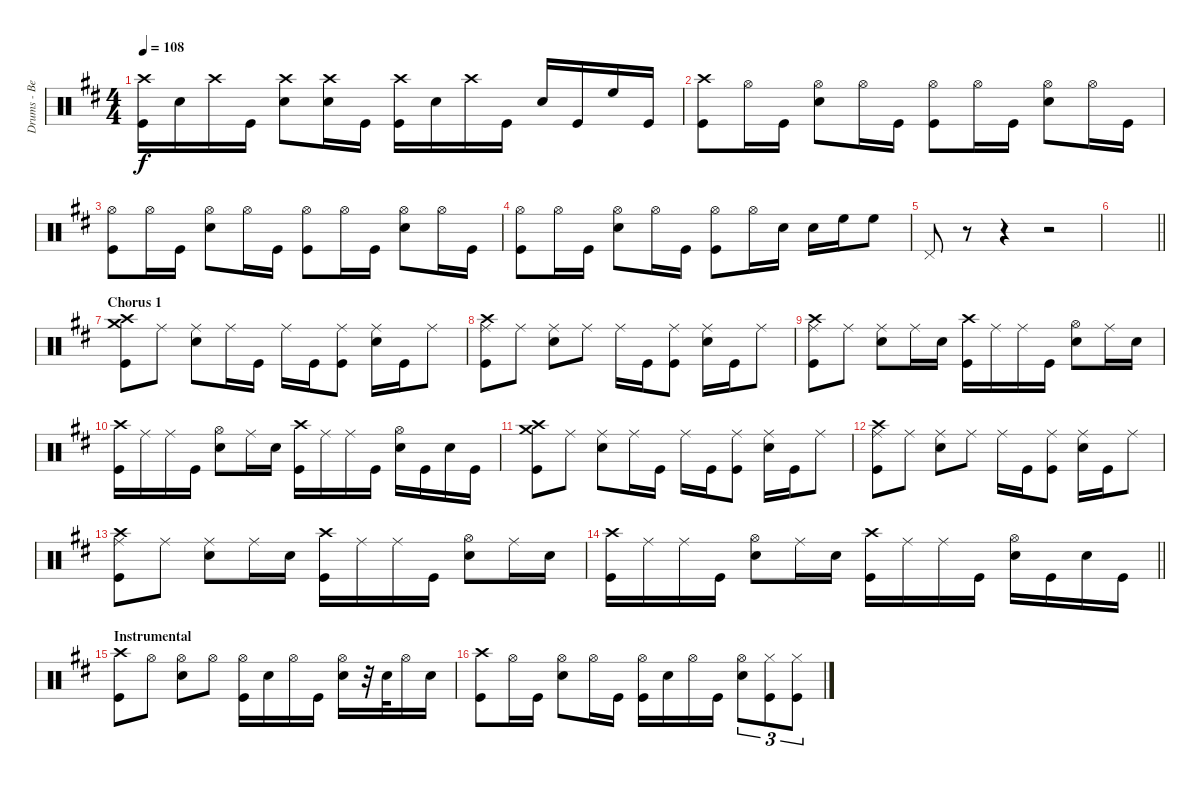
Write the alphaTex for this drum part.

\track ("Drums - Ben Johnston" "Drums - Be") {instrument percussion}
\staff {score}
\articulation defaults
\ts (4 4)
\tempo 108
\clef neutral
\ks d
("Crash high (hit)" "Kick (hit)").16{dy f} "Snare (hit) 2".16 "Crash high (hit)".16 "Kick (hit)".16 ("Crash high (hit)" "Snare (hit) 2").8 ("Crash high (hit)" "Snare (hit) 2").16 "Kick (hit)".16 ("Crash high (hit)" "Kick (hit)").16 "Snare (hit) 2".16 "Crash high (hit)".16 "Kick (hit)".16 "Snare (hit) 2".16 "Kick (hit)".16 "High Floor Tom (hit)".16 "Kick (hit)".16 |
("Crash high (hit)" "Kick (hit)").8 "Hi-Hat (open)".16 "Kick (hit)".16 ("Hi-Hat (open)" "Snare (hit) 2").8 "Hi-Hat (open)".16 "Kick (hit)".16 ("Hi-Hat (open)" "Kick (hit)").8 "Hi-Hat (open)".16 "Kick (hit)".16 ("Hi-Hat (open)" "Snare (hit) 2").8 "Hi-Hat (open)".16 "Kick (hit)".16 |
("Hi-Hat (open)" "Kick (hit)").8 "Hi-Hat (open)".16 "Kick (hit)".16 ("Hi-Hat (open)" "Snare (hit) 2").8 "Hi-Hat (open)".16 "Kick (hit)".16 ("Hi-Hat (open)" "Kick (hit)").8 "Hi-Hat (open)".16 "Kick (hit)".16 ("Hi-Hat (open)" "Snare (hit) 2").8 "Hi-Hat (open)".16 "Kick (hit)".16 |
("Hi-Hat (open)" "Kick (hit)").8 "Hi-Hat (open)".16 "Kick (hit)".16 ("Hi-Hat (open)" "Snare (hit) 2").8 "Hi-Hat (open)".16 "Kick (hit)".16 ("Hi-Hat (open)" "Kick (hit)").8 "Hi-Hat (open)".16 "Snare (hit) 2".16 "Snare (hit) 2".16 "High Floor Tom (hit)".16 "High Floor Tom (hit)".8 |
"Pedal Hi-Hat (hit)".8 r.8 r.4 r.2 |
\barLineRight lightlight
|
\section ("" "Chorus 1")
("Crash high (hit)" "Crash medium (hit)" "Kick (hit)").8 "Ride (middle)".8 ("Ride (middle)" "Snare (hit) 2").8 "Ride (middle)".16 "Kick (hit)".16 "Ride (middle)".16 "Kick (hit)".16 ("Ride (middle)" "Kick (hit)").8 ("Ride (middle)" "Snare (hit) 2").16 "Kick (hit)".16 "Ride (middle)".8 |
("Crash high (hit)" "Ride (middle)" "Kick (hit)").8 "Ride (middle)".8 ("Ride (middle)" "Snare (hit) 2").8 "Ride (middle)".8 "Ride (middle)".16 "Kick (hit)".16 ("Ride (middle)" "Kick (hit)").8 ("Ride (middle)" "Snare (hit) 2").16 "Kick (hit)".16 "Ride (middle)".8 |
("Crash high (hit)" "Ride (middle)" "Kick (hit)").8 "Ride (middle)".8 ("Ride (middle)" "Snare (hit) 2").8 "Ride (middle)".16 "Snare (hit) 2".16 ("Crash high (hit)" "Kick (hit)").16 "Ride (middle)".16 "Ride (middle)".16 "Kick (hit)".16 ("Hi-Hat (open)" "Snare (hit) 2").8 "Ride (middle)".16 "Snare (hit) 2".16 |
("Crash high (hit)" "Kick (hit)").16 "Ride (middle)".16 "Ride (middle)".16 "Kick (hit)".16 ("Hi-Hat (open)" "Snare (hit) 2").8 "Ride (middle)".16 "Snare (hit) 2".16 ("Crash high (hit)" "Kick (hit)").16 "Ride (middle)".16 "Ride (middle)".16 "Kick (hit)".16 ("Hi-Hat (open)" "Snare (hit) 2").16 "Kick (hit)".16 "Snare (hit) 2".16 "Kick (hit)".16 |
("Crash high (hit)" "Crash medium (hit)" "Kick (hit)").8 "Ride (middle)".8 ("Ride (middle)" "Snare (hit) 2").8 "Ride (middle)".16 "Kick (hit)".16 "Ride (middle)".16 "Kick (hit)".16 ("Ride (middle)" "Kick (hit)").8 ("Ride (middle)" "Snare (hit) 2").16 "Kick (hit)".16 "Ride (middle)".8 |
("Crash high (hit)" "Ride (middle)" "Kick (hit)").8 "Ride (middle)".8 ("Ride (middle)" "Snare (hit) 2").8 "Ride (middle)".8 "Ride (middle)".16 "Kick (hit)".16 ("Ride (middle)" "Kick (hit)").8 ("Ride (middle)" "Snare (hit) 2").16 "Kick (hit)".16 "Ride (middle)".8 |
("Crash high (hit)" "Ride (middle)" "Kick (hit)").8 "Ride (middle)".8 ("Ride (middle)" "Snare (hit) 2").8 "Ride (middle)".16 "Snare (hit) 2".16 ("Crash high (hit)" "Kick (hit)").16 "Ride (middle)".16 "Ride (middle)".16 "Kick (hit)".16 ("Hi-Hat (open)" "Snare (hit) 2").8 "Ride (middle)".16 "Snare (hit) 2".16 |
\barLineRight lightlight
("Crash high (hit)" "Kick (hit)").16 "Ride (middle)".16 "Ride (middle)".16 "Kick (hit)".16 ("Hi-Hat (open)" "Snare (hit) 2").8 "Ride (middle)".16 "Snare (hit) 2".16 ("Crash high (hit)" "Kick (hit)").16 "Ride (middle)".16 "Ride (middle)".16 "Kick (hit)".16 ("Hi-Hat (open)" "Snare (hit) 2").16 "Kick (hit)".16 "Snare (hit) 2".16 "Kick (hit)".16 |
\section ("" "Instrumental")
("Crash high (hit)" "Kick (hit)").8 "Hi-Hat (open)".8 ("Hi-Hat (open)" "Snare (hit) 2").8 "Hi-Hat (open)".8 ("Hi-Hat (open)" "Kick (hit)").16 "Snare (hit) 2".16 "Hi-Hat (open)".16 "Kick (hit)".16 ("Hi-Hat (open)" "Snare (hit) 2").16 r.32 "Snare (hit) 2".32 "Hi-Hat (open)".16 "Snare (hit) 2".16 |
("Crash high (hit)" "Kick (hit)").8 "Hi-Hat (open)".16 "Kick (hit)".16 ("Hi-Hat (open)" "Snare (hit) 2").8 "Hi-Hat (open)".16 "Kick (hit)".16 ("Hi-Hat (open)" "Kick (hit)").16 "Snare (hit) 2".16 "Hi-Hat (open)".16 "Kick (hit)".16 ("Hi-Hat (open)" "Snare (hit) 2").8{tu (3 2)} ("Hi-Hat (closed)" "Kick (hit)").8{tu (3 2)} ("Hi-Hat (closed)" "Kick (hit)").8{tu (3 2)}
